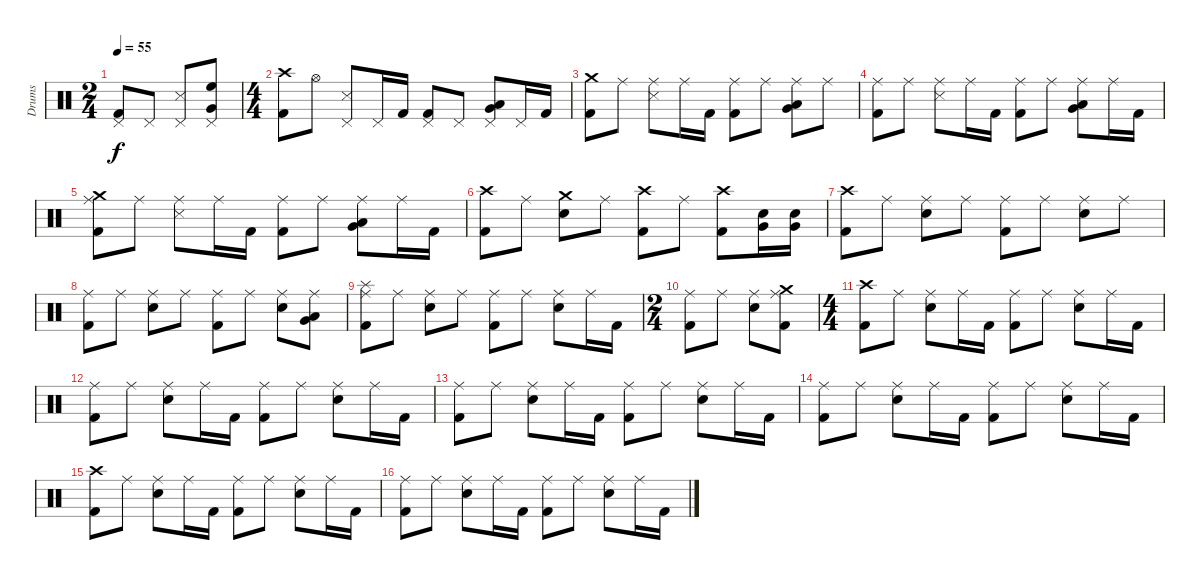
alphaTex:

\track ("Drums" "Drums") {instrument percussion}
\staff {score}
\articulation defaults
\ts (2 4)
\tempo 55
\clef neutral
\ks c
("Pedal Hi-Hat (hit)" "Kick (hit) 2").8{dy f} "Pedal Hi-Hat (hit)".8 ("Pedal Hi-Hat (hit)" "Snare (side stick) 3").8 ("Pedal Hi-Hat (hit)" "High Floor Tom (hit)" "Very Low Tom (hit)").8 |
\ts (4 4)
("Crash high (hit)" "Kick (hit) 2").8 "Hi-Hat (open)".8 ("Pedal Hi-Hat (hit)" "Snare (side stick) 3").8 "Pedal Hi-Hat (hit)".16 "Kick (hit) 2".16 ("Pedal Hi-Hat (hit)" "Kick (hit) 2").8 "Pedal Hi-Hat (hit)".8 ("Pedal Hi-Hat (hit)" "Very Low Tom (hit)" "Low Floor Tom (hit)").8 "Pedal Hi-Hat (hit)".16 "Kick (hit) 2".16 |
("Crash medium (hit)" "Kick (hit) 2").8 "Ride (middle)".8 ("Ride (middle)" "Snare (side stick) 3").8 "Ride (middle)".16 "Kick (hit) 2".16 ("Ride (middle)" "Kick (hit) 2").8 "Ride (middle)".8 ("Ride (middle)" "Very Low Tom (hit)" "Low Floor Tom (hit)").8 "Ride (middle)".8 |
("Ride (middle)" "Kick (hit) 2").8 "Ride (middle)".8 ("Ride (middle)" "Snare (side stick) 3").8 "Ride (middle)".16 "Kick (hit) 2".16 ("Ride (middle)" "Kick (hit) 2").8 "Ride (middle)".8 ("Ride (middle)" "Very Low Tom (hit)" "Low Floor Tom (hit)").8 "Ride (middle)".16 "Kick (hit) 2".16 |
("Crash medium (hit)" "Ride (middle)" "Kick (hit) 2").8 "Ride (middle)".8 ("Ride (middle)" "Snare (side stick) 3").8 "Ride (middle)".16 "Kick (hit) 2".16 ("Ride (middle)" "Kick (hit) 2").8 "Ride (middle)".8 ("Ride (middle)" "Very Low Tom (hit)" "Low Floor Tom (hit)").8 "Ride (middle)".16 "Kick (hit) 2".16 |
("Crash high (hit)" "Kick (hit) 2").8 "Ride (middle)".8 ("Crash medium (hit)" "Electric Snare (hit)").8 "Ride (middle)".8 ("Crash high (hit)" "Kick (hit) 2").8 "Ride (middle)".8 ("Crash high (hit)" "Kick (hit) 2").8 ("Electric Snare (hit)" "Very Low Tom (hit)").16 ("Electric Snare (hit)" "Very Low Tom (hit)").16 |
("Crash high (hit)" "Kick (hit) 2").8 "Ride (middle)".8 ("Ride (middle)" "Electric Snare (hit)").8 "Ride (middle)".8 ("Ride (middle)" "Kick (hit) 2").8 "Ride (middle)".8 ("Ride (middle)" "Electric Snare (hit)").8 "Ride (middle)".8 |
("Ride (middle)" "Kick (hit) 2").8 "Ride (middle)".8 ("Ride (middle)" "Electric Snare (hit)").8 "Ride (middle)".8 ("Ride (middle)" "Kick (hit) 2").8 "Ride (middle)".8 ("Ride (middle)" "Electric Snare (hit)").8 ("Ride (middle)" "Very Low Tom (hit)" "Low Floor Tom (hit)").8 |
("Splash (hit)" "Ride (middle)" "Kick (hit) 2").8 "Ride (middle)".8 ("Ride (middle)" "Electric Snare (hit)").8 "Ride (middle)".8 ("Ride (middle)" "Kick (hit) 2").8 "Ride (middle)".8 ("Ride (middle)" "Electric Snare (hit)").8 "Ride (middle)".16 "Kick (hit) 2".16 |
\ts (2 4)
("Ride (middle)" "Kick (hit) 2").8 "Ride (middle)".8 ("Ride (middle)" "Electric Snare (hit)").8 ("Crash medium (hit)" "Ride (middle)" "Kick (hit) 2").8 |
\ts (4 4)
("Crash high (hit)" "Kick (hit) 2").8 "Ride (middle)".8 ("Ride (middle)" "Electric Snare (hit)").8 "Ride (middle)".16 "Kick (hit) 2".16 ("Ride (middle)" "Kick (hit) 2").8 "Ride (middle)".8 ("Ride (middle)" "Electric Snare (hit)").8 "Ride (middle)".16 "Kick (hit) 2".16 |
("Ride (middle)" "Kick (hit) 2").8 "Ride (middle)".8 ("Ride (middle)" "Electric Snare (hit)").8 "Ride (middle)".16 "Kick (hit) 2".16 ("Ride (middle)" "Kick (hit) 2").8 "Ride (middle)".8 ("Ride (middle)" "Electric Snare (hit)").8 "Ride (middle)".16 "Kick (hit) 2".16 |
("Ride (middle)" "Kick (hit) 2").8 "Ride (middle)".8 ("Ride (middle)" "Electric Snare (hit)").8 "Ride (middle)".16 "Kick (hit) 2".16 ("Ride (middle)" "Kick (hit) 2").8 "Ride (middle)".8 ("Ride (middle)" "Electric Snare (hit)").8 "Ride (middle)".16 "Kick (hit) 2".16 |
("Ride (middle)" "Kick (hit) 2").8 "Ride (middle)".8 ("Ride (middle)" "Electric Snare (hit)").8 "Ride (middle)".16 "Kick (hit) 2".16 ("Ride (middle)" "Kick (hit) 2").8 "Ride (middle)".8 ("Ride (middle)" "Electric Snare (hit)").8 "Ride (middle)".16 "Kick (hit) 2".16 |
("Crash high (hit)" "Kick (hit) 2").8 "Ride (middle)".8 ("Ride (middle)" "Electric Snare (hit)").8 "Ride (middle)".16 "Kick (hit) 2".16 ("Ride (middle)" "Kick (hit) 2").8 "Ride (middle)".8 ("Ride (middle)" "Electric Snare (hit)").8 "Ride (middle)".16 "Kick (hit) 2".16 |
("Ride (middle)" "Kick (hit) 2").8 "Ride (middle)".8 ("Ride (middle)" "Electric Snare (hit)").8 "Ride (middle)".16 "Kick (hit) 2".16 ("Ride (middle)" "Kick (hit) 2").8 "Ride (middle)".8 ("Ride (middle)" "Electric Snare (hit)").8 "Ride (middle)".16 "Kick (hit) 2".16
